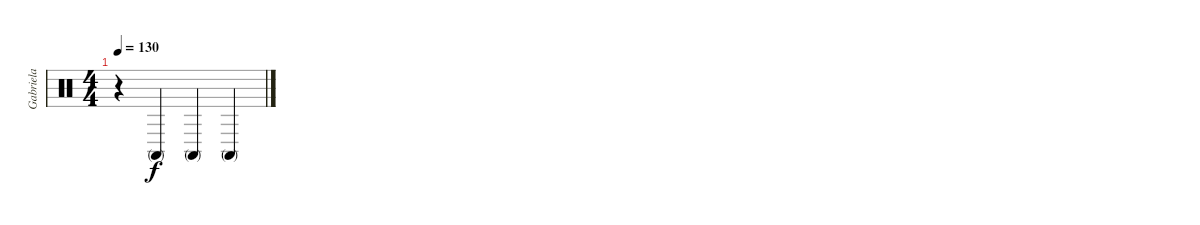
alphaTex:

\track ("Gabriela " "Gabriela ") {instrument percussion}
\staff {score}
\articulation defaults
\ts (4 4)
\tempo 130
\clef neutral
\ks c
r.4{dy f} "Conga high (mute)".4 "Conga high (mute)".4 "Conga high (mute)".4
